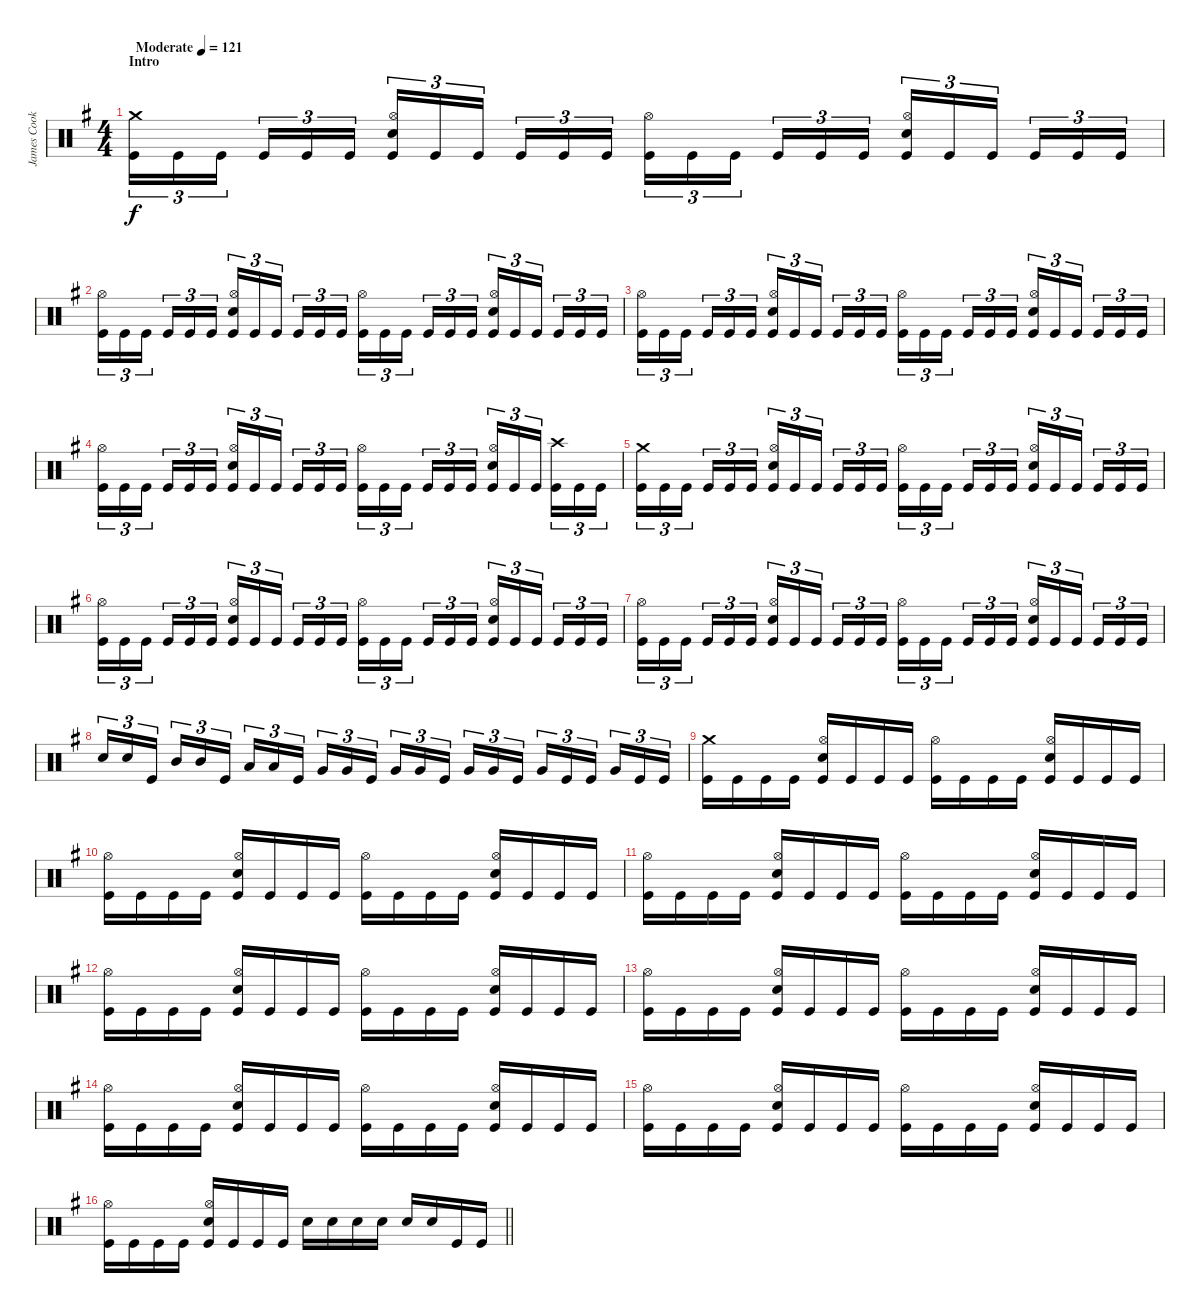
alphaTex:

\track ("James Cook" "James Cook") {instrument percussion}
\staff {score}
\articulation defaults
\ts (4 4)
\section ("" "Intro")
\tempo (121 "Moderate")
\clef neutral
\ks g
("Crash medium (hit)" "Kick (hit)").16{tu (3 2) dy f} "Kick (hit)".16{tu (3 2)} "Kick (hit)".16{tu (3 2) beam splitsecondary} "Kick (hit)".16{tu (3 2)} "Kick (hit)".16{tu (3 2)} "Kick (hit)".16{tu (3 2)} ("Hi-Hat (open)" "Snare (hit) 2" "Kick (hit)").16{tu (3 2)} "Kick (hit)".16{tu (3 2)} "Kick (hit)".16{tu (3 2) beam splitsecondary} "Kick (hit)".16{tu (3 2)} "Kick (hit)".16{tu (3 2)} "Kick (hit)".16{tu (3 2)} ("Hi-Hat (open)" "Kick (hit)").16{tu (3 2)} "Kick (hit)".16{tu (3 2)} "Kick (hit)".16{tu (3 2) beam splitsecondary} "Kick (hit)".16{tu (3 2)} "Kick (hit)".16{tu (3 2)} "Kick (hit)".16{tu (3 2)} ("Hi-Hat (open)" "Snare (hit) 2" "Kick (hit)").16{tu (3 2)} "Kick (hit)".16{tu (3 2)} "Kick (hit)".16{tu (3 2) beam splitsecondary} "Kick (hit)".16{tu (3 2)} "Kick (hit)".16{tu (3 2)} "Kick (hit)".16{tu (3 2)} |
("Hi-Hat (open)" "Kick (hit)").16{tu (3 2)} "Kick (hit)".16{tu (3 2)} "Kick (hit)".16{tu (3 2) beam splitsecondary} "Kick (hit)".16{tu (3 2)} "Kick (hit)".16{tu (3 2)} "Kick (hit)".16{tu (3 2)} ("Hi-Hat (open)" "Snare (hit) 2" "Kick (hit)").16{tu (3 2)} "Kick (hit)".16{tu (3 2)} "Kick (hit)".16{tu (3 2) beam splitsecondary} "Kick (hit)".16{tu (3 2)} "Kick (hit)".16{tu (3 2)} "Kick (hit)".16{tu (3 2)} ("Hi-Hat (open)" "Kick (hit)").16{tu (3 2)} "Kick (hit)".16{tu (3 2)} "Kick (hit)".16{tu (3 2) beam splitsecondary} "Kick (hit)".16{tu (3 2)} "Kick (hit)".16{tu (3 2)} "Kick (hit)".16{tu (3 2)} ("Hi-Hat (open)" "Snare (hit) 2" "Kick (hit)").16{tu (3 2)} "Kick (hit)".16{tu (3 2)} "Kick (hit)".16{tu (3 2) beam splitsecondary} "Kick (hit)".16{tu (3 2)} "Kick (hit)".16{tu (3 2)} "Kick (hit)".16{tu (3 2)} |
("Hi-Hat (open)" "Kick (hit)").16{tu (3 2)} "Kick (hit)".16{tu (3 2)} "Kick (hit)".16{tu (3 2) beam splitsecondary} "Kick (hit)".16{tu (3 2)} "Kick (hit)".16{tu (3 2)} "Kick (hit)".16{tu (3 2)} ("Hi-Hat (open)" "Snare (hit) 2" "Kick (hit)").16{tu (3 2)} "Kick (hit)".16{tu (3 2)} "Kick (hit)".16{tu (3 2) beam splitsecondary} "Kick (hit)".16{tu (3 2)} "Kick (hit)".16{tu (3 2)} "Kick (hit)".16{tu (3 2)} ("Hi-Hat (open)" "Kick (hit)").16{tu (3 2)} "Kick (hit)".16{tu (3 2)} "Kick (hit)".16{tu (3 2) beam splitsecondary} "Kick (hit)".16{tu (3 2)} "Kick (hit)".16{tu (3 2)} "Kick (hit)".16{tu (3 2)} ("Hi-Hat (open)" "Snare (hit) 2" "Kick (hit)").16{tu (3 2)} "Kick (hit)".16{tu (3 2)} "Kick (hit)".16{tu (3 2) beam splitsecondary} "Kick (hit)".16{tu (3 2)} "Kick (hit)".16{tu (3 2)} "Kick (hit)".16{tu (3 2)} |
("Hi-Hat (open)" "Kick (hit)").16{tu (3 2)} "Kick (hit)".16{tu (3 2)} "Kick (hit)".16{tu (3 2) beam splitsecondary} "Kick (hit)".16{tu (3 2)} "Kick (hit)".16{tu (3 2)} "Kick (hit)".16{tu (3 2)} ("Hi-Hat (open)" "Snare (hit) 2" "Kick (hit)").16{tu (3 2)} "Kick (hit)".16{tu (3 2)} "Kick (hit)".16{tu (3 2) beam splitsecondary} "Kick (hit)".16{tu (3 2)} "Kick (hit)".16{tu (3 2)} "Kick (hit)".16{tu (3 2)} ("Hi-Hat (open)" "Kick (hit)").16{tu (3 2)} "Kick (hit)".16{tu (3 2)} "Kick (hit)".16{tu (3 2) beam splitsecondary} "Kick (hit)".16{tu (3 2)} "Kick (hit)".16{tu (3 2)} "Kick (hit)".16{tu (3 2)} ("Hi-Hat (open)" "Snare (hit) 2" "Kick (hit)").16{tu (3 2)} "Kick (hit)".16{tu (3 2)} "Kick (hit)".16{tu (3 2) beam splitsecondary} ("Crash high (hit)" "Kick (hit)").16{tu (3 2)} "Kick (hit)".16{tu (3 2)} "Kick (hit)".16{tu (3 2)} |
("Crash medium (hit)" "Kick (hit)").16{tu (3 2)} "Kick (hit)".16{tu (3 2)} "Kick (hit)".16{tu (3 2) beam splitsecondary} "Kick (hit)".16{tu (3 2)} "Kick (hit)".16{tu (3 2)} "Kick (hit)".16{tu (3 2)} ("Hi-Hat (open)" "Snare (hit) 2" "Kick (hit)").16{tu (3 2)} "Kick (hit)".16{tu (3 2)} "Kick (hit)".16{tu (3 2) beam splitsecondary} "Kick (hit)".16{tu (3 2)} "Kick (hit)".16{tu (3 2)} "Kick (hit)".16{tu (3 2)} ("Hi-Hat (open)" "Kick (hit)").16{tu (3 2)} "Kick (hit)".16{tu (3 2)} "Kick (hit)".16{tu (3 2) beam splitsecondary} "Kick (hit)".16{tu (3 2)} "Kick (hit)".16{tu (3 2)} "Kick (hit)".16{tu (3 2)} ("Hi-Hat (open)" "Snare (hit) 2" "Kick (hit)").16{tu (3 2)} "Kick (hit)".16{tu (3 2)} "Kick (hit)".16{tu (3 2) beam splitsecondary} "Kick (hit)".16{tu (3 2)} "Kick (hit)".16{tu (3 2)} "Kick (hit)".16{tu (3 2)} |
("Hi-Hat (open)" "Kick (hit)").16{tu (3 2)} "Kick (hit)".16{tu (3 2)} "Kick (hit)".16{tu (3 2) beam splitsecondary} "Kick (hit)".16{tu (3 2)} "Kick (hit)".16{tu (3 2)} "Kick (hit)".16{tu (3 2)} ("Hi-Hat (open)" "Snare (hit) 2" "Kick (hit)").16{tu (3 2)} "Kick (hit)".16{tu (3 2)} "Kick (hit)".16{tu (3 2) beam splitsecondary} "Kick (hit)".16{tu (3 2)} "Kick (hit)".16{tu (3 2)} "Kick (hit)".16{tu (3 2)} ("Hi-Hat (open)" "Kick (hit)").16{tu (3 2)} "Kick (hit)".16{tu (3 2)} "Kick (hit)".16{tu (3 2) beam splitsecondary} "Kick (hit)".16{tu (3 2)} "Kick (hit)".16{tu (3 2)} "Kick (hit)".16{tu (3 2)} ("Hi-Hat (open)" "Snare (hit) 2" "Kick (hit)").16{tu (3 2)} "Kick (hit)".16{tu (3 2)} "Kick (hit)".16{tu (3 2) beam splitsecondary} "Kick (hit)".16{tu (3 2)} "Kick (hit)".16{tu (3 2)} "Kick (hit)".16{tu (3 2)} |
("Hi-Hat (open)" "Kick (hit)").16{tu (3 2)} "Kick (hit)".16{tu (3 2)} "Kick (hit)".16{tu (3 2) beam splitsecondary} "Kick (hit)".16{tu (3 2)} "Kick (hit)".16{tu (3 2)} "Kick (hit)".16{tu (3 2)} ("Hi-Hat (open)" "Snare (hit) 2" "Kick (hit)").16{tu (3 2)} "Kick (hit)".16{tu (3 2)} "Kick (hit)".16{tu (3 2) beam splitsecondary} "Kick (hit)".16{tu (3 2)} "Kick (hit)".16{tu (3 2)} "Kick (hit)".16{tu (3 2)} ("Hi-Hat (open)" "Kick (hit)").16{tu (3 2)} "Kick (hit)".16{tu (3 2)} "Kick (hit)".16{tu (3 2) beam splitsecondary} "Kick (hit)".16{tu (3 2)} "Kick (hit)".16{tu (3 2)} "Kick (hit)".16{tu (3 2)} ("Hi-Hat (open)" "Snare (hit) 2" "Kick (hit)").16{tu (3 2)} "Kick (hit)".16{tu (3 2)} "Kick (hit)".16{tu (3 2) beam splitsecondary} "Kick (hit)".16{tu (3 2)} "Kick (hit)".16{tu (3 2)} "Kick (hit)".16{tu (3 2)} |
"Snare (hit) 2".16{tu (3 2)} "Snare (hit) 2".16{tu (3 2)} "Kick (hit)".16{tu (3 2) beam splitsecondary} "Mid Tom (hit)".16{tu (3 2)} "Mid Tom (hit)".16{tu (3 2)} "Kick (hit)".16{tu (3 2)} "Low Tom (hit)".16{tu (3 2)} "Low Tom (hit)".16{tu (3 2)} "Kick (hit)".16{tu (3 2) beam splitsecondary} "Very Low Tom (hit)".16{tu (3 2)} "Very Low Tom (hit)".16{tu (3 2)} "Kick (hit)".16{tu (3 2)} "Very Low Tom (hit)".16{tu (3 2)} "Very Low Tom (hit)".16{tu (3 2)} "Kick (hit)".16{tu (3 2) beam splitsecondary} "Very Low Tom (hit)".16{tu (3 2)} "Very Low Tom (hit)".16{tu (3 2)} "Kick (hit)".16{tu (3 2)} "Very Low Tom (hit)".16{tu (3 2)} "Kick (hit)".16{tu (3 2)} "Kick (hit)".16{tu (3 2) beam splitsecondary} "Very Low Tom (hit)".16{tu (3 2)} "Kick (hit)".16{tu (3 2)} "Kick (hit)".16{tu (3 2)} |
("Crash medium (hit)" "Kick (hit)").16 "Kick (hit)".16 "Kick (hit)".16 "Kick (hit)".16 ("Hi-Hat (open)" "Snare (hit) 2" "Kick (hit)").16 "Kick (hit)".16 "Kick (hit)".16 "Kick (hit)".16 ("Hi-Hat (open)" "Kick (hit)").16 "Kick (hit)".16 "Kick (hit)".16 "Kick (hit)".16 ("Hi-Hat (open)" "Snare (hit) 2" "Kick (hit)").16 "Kick (hit)".16 "Kick (hit)".16 "Kick (hit)".16 |
("Hi-Hat (open)" "Kick (hit)").16 "Kick (hit)".16 "Kick (hit)".16 "Kick (hit)".16 ("Hi-Hat (open)" "Snare (hit) 2" "Kick (hit)").16 "Kick (hit)".16 "Kick (hit)".16 "Kick (hit)".16 ("Hi-Hat (open)" "Kick (hit)").16 "Kick (hit)".16 "Kick (hit)".16 "Kick (hit)".16 ("Hi-Hat (open)" "Snare (hit) 2" "Kick (hit)").16 "Kick (hit)".16 "Kick (hit)".16 "Kick (hit)".16 |
("Hi-Hat (open)" "Kick (hit)").16 "Kick (hit)".16 "Kick (hit)".16 "Kick (hit)".16 ("Hi-Hat (open)" "Snare (hit) 2" "Kick (hit)").16 "Kick (hit)".16 "Kick (hit)".16 "Kick (hit)".16 ("Hi-Hat (open)" "Kick (hit)").16 "Kick (hit)".16 "Kick (hit)".16 "Kick (hit)".16 ("Hi-Hat (open)" "Snare (hit) 2" "Kick (hit)").16 "Kick (hit)".16 "Kick (hit)".16 "Kick (hit)".16 |
("Hi-Hat (open)" "Kick (hit)").16 "Kick (hit)".16 "Kick (hit)".16 "Kick (hit)".16 ("Hi-Hat (open)" "Snare (hit) 2" "Kick (hit)").16 "Kick (hit)".16 "Kick (hit)".16 "Kick (hit)".16 ("Hi-Hat (open)" "Kick (hit)").16 "Kick (hit)".16 "Kick (hit)".16 "Kick (hit)".16 ("Hi-Hat (open)" "Snare (hit) 2" "Kick (hit)").16 "Kick (hit)".16 "Kick (hit)".16 "Kick (hit)".16 |
("Hi-Hat (open)" "Kick (hit)").16 "Kick (hit)".16 "Kick (hit)".16 "Kick (hit)".16 ("Hi-Hat (open)" "Snare (hit) 2" "Kick (hit)").16 "Kick (hit)".16 "Kick (hit)".16 "Kick (hit)".16 ("Hi-Hat (open)" "Kick (hit)").16 "Kick (hit)".16 "Kick (hit)".16 "Kick (hit)".16 ("Hi-Hat (open)" "Snare (hit) 2" "Kick (hit)").16 "Kick (hit)".16 "Kick (hit)".16 "Kick (hit)".16 |
("Hi-Hat (open)" "Kick (hit)").16 "Kick (hit)".16 "Kick (hit)".16 "Kick (hit)".16 ("Hi-Hat (open)" "Snare (hit) 2" "Kick (hit)").16 "Kick (hit)".16 "Kick (hit)".16 "Kick (hit)".16 ("Hi-Hat (open)" "Kick (hit)").16 "Kick (hit)".16 "Kick (hit)".16 "Kick (hit)".16 ("Hi-Hat (open)" "Snare (hit) 2" "Kick (hit)").16 "Kick (hit)".16 "Kick (hit)".16 "Kick (hit)".16 |
("Hi-Hat (open)" "Kick (hit)").16 "Kick (hit)".16 "Kick (hit)".16 "Kick (hit)".16 ("Hi-Hat (open)" "Snare (hit) 2" "Kick (hit)").16 "Kick (hit)".16 "Kick (hit)".16 "Kick (hit)".16 ("Hi-Hat (open)" "Kick (hit)").16 "Kick (hit)".16 "Kick (hit)".16 "Kick (hit)".16 ("Hi-Hat (open)" "Snare (hit) 2" "Kick (hit)").16 "Kick (hit)".16 "Kick (hit)".16 "Kick (hit)".16 |
\barLineRight lightlight
("Hi-Hat (open)" "Kick (hit)").16 "Kick (hit)".16 "Kick (hit)".16 "Kick (hit)".16 ("Hi-Hat (open)" "Snare (hit) 2" "Kick (hit)").16 "Kick (hit)".16 "Kick (hit)".16 "Kick (hit)".16 "Snare (hit) 2".16 "Snare (hit) 2".16 "Snare (hit) 2".16 "Snare (hit) 2".16 "Snare (hit) 2".16 "Snare (hit) 2".16 "Kick (hit)".16 "Kick (hit)".16
